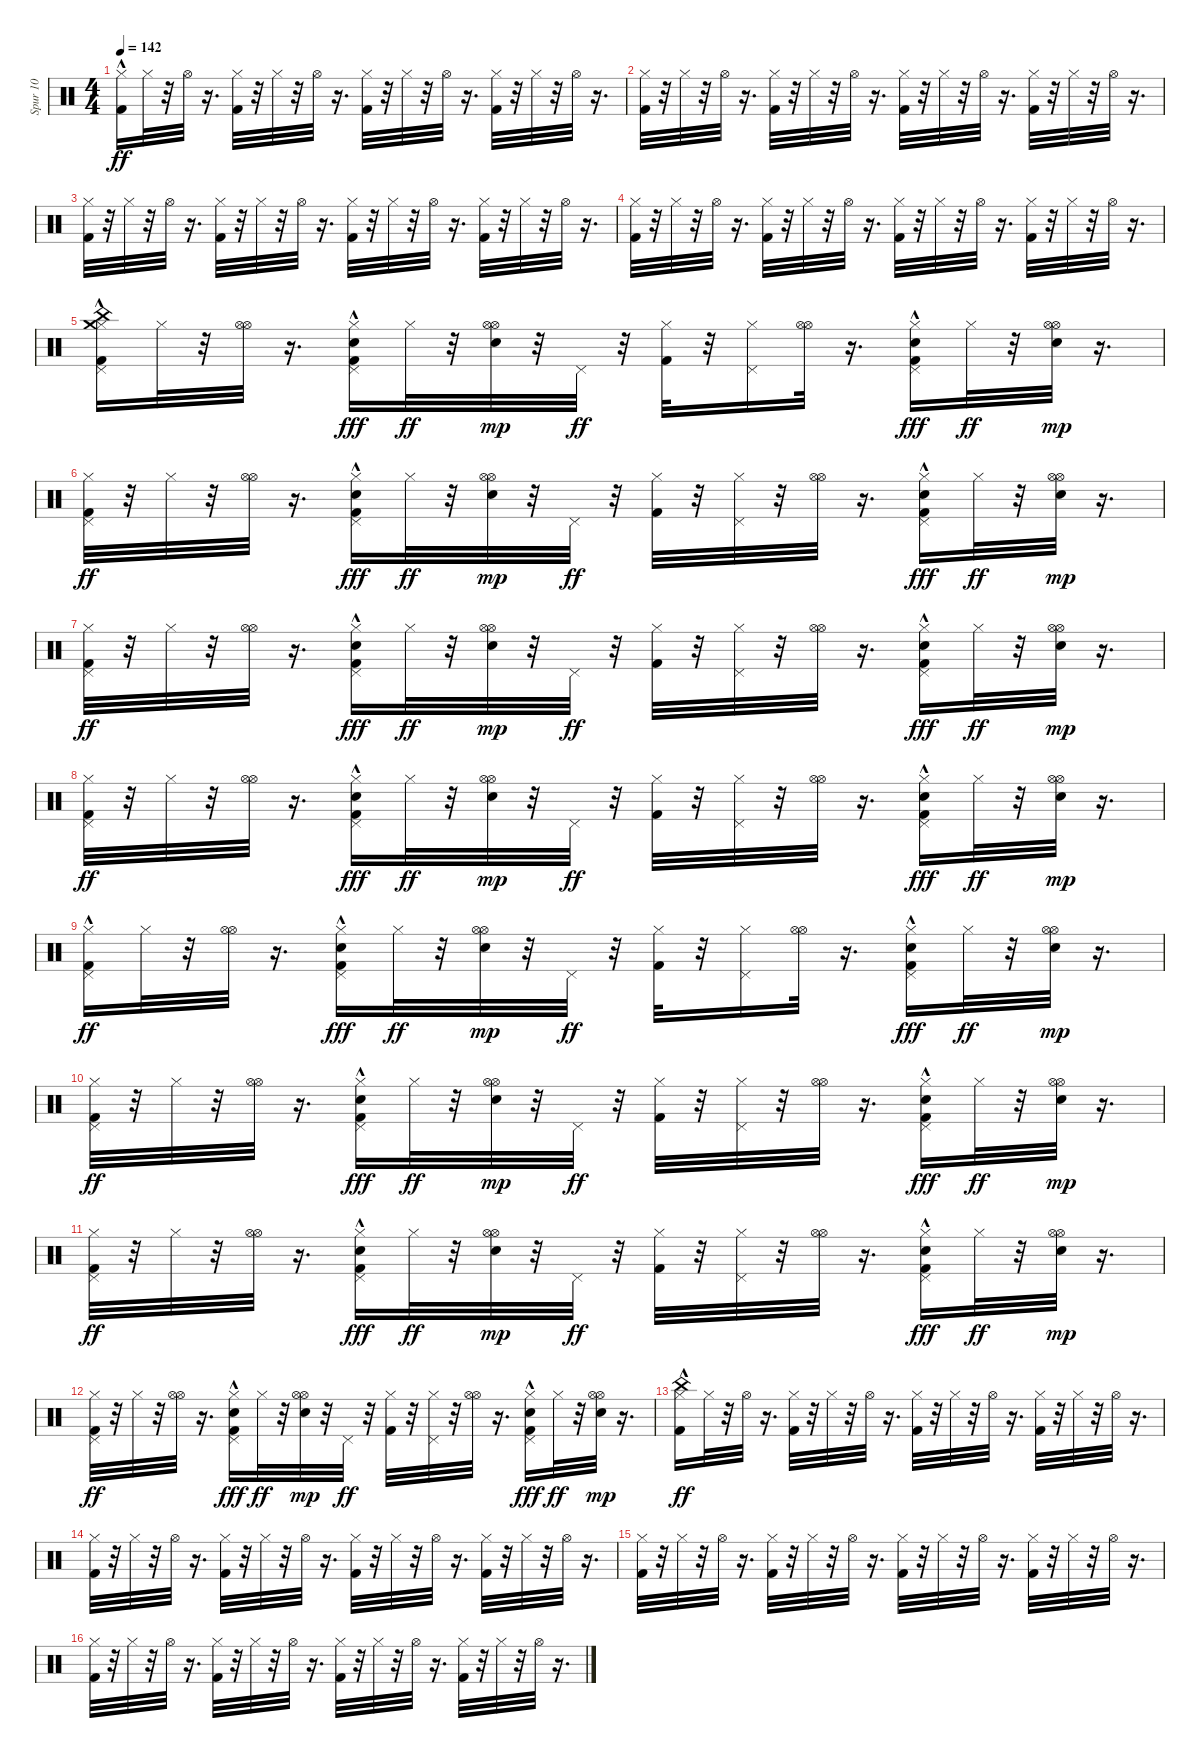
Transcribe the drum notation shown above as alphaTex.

\track ("Spur 10" "Spur 10") {instrument percussion}
\staff {score}
\articulation defaults
\ts (4 4)
\tempo 142
\clef neutral
\ks c
("Kick (hit) 2"{hac} "Hi-Hat (closed)").16{dy ff} "Hi-Hat (closed)".32 r.32 "Hi-Hat (open)".32 r.16{d} ("Kick (hit) 2" "Hi-Hat (closed)").32 r.32 "Hi-Hat (closed)".32 r.32 "Hi-Hat (open)".32 r.16{d} ("Kick (hit) 2" "Hi-Hat (closed)").32 r.32 "Hi-Hat (closed)".32 r.32 "Hi-Hat (open)".32 r.16{d} ("Kick (hit) 2" "Hi-Hat (closed)").32 r.32 "Hi-Hat (closed)".32 r.32 "Hi-Hat (open)".32 r.16{d} |
("Kick (hit) 2" "Hi-Hat (closed)").32 r.32 "Hi-Hat (closed)".32 r.32 "Hi-Hat (open)".32 r.16{d} ("Kick (hit) 2" "Hi-Hat (closed)").32 r.32 "Hi-Hat (closed)".32 r.32 "Hi-Hat (open)".32 r.16{d} ("Kick (hit) 2" "Hi-Hat (closed)").32 r.32 "Hi-Hat (closed)".32 r.32 "Hi-Hat (open)".32 r.16{d} ("Kick (hit) 2" "Hi-Hat (closed)").32 r.32 "Hi-Hat (closed)".32 r.32 "Hi-Hat (open)".32 r.16{d} |
("Kick (hit) 2" "Hi-Hat (closed)").32 r.32 "Hi-Hat (closed)".32 r.32 "Hi-Hat (open)".32 r.16{d} ("Kick (hit) 2" "Hi-Hat (closed)").32 r.32 "Hi-Hat (closed)".32 r.32 "Hi-Hat (open)".32 r.16{d} ("Kick (hit) 2" "Hi-Hat (closed)").32 r.32 "Hi-Hat (closed)".32 r.32 "Hi-Hat (open)".32 r.16{d} ("Kick (hit) 2" "Hi-Hat (closed)").32 r.32 "Hi-Hat (closed)".32 r.32 "Hi-Hat (open)".32 r.16{d} |
("Kick (hit) 2" "Hi-Hat (closed)").32 r.32 "Hi-Hat (closed)".32 r.32 "Hi-Hat (open)".32 r.16{d} ("Kick (hit) 2" "Hi-Hat (closed)").32 r.32 "Hi-Hat (closed)".32 r.32 "Hi-Hat (open)".32 r.16{d} ("Kick (hit) 2" "Hi-Hat (closed)").32 r.32 "Hi-Hat (closed)".32 r.32 "Hi-Hat (open)".32 r.16{d} ("Kick (hit) 2" "Hi-Hat (closed)").32 r.32 "Hi-Hat (closed)".32 r.32 "Hi-Hat (open)".32 r.16{d} |
("Kick (hit) 2"{hac} "Hi-Hat (closed)" "Pedal Hi-Hat (hit)" "Crash medium (hit)" "China (hit)").16 "Hi-Hat (closed)".32 r.32 ("Hi-Hat (open)" "Hi-Hat (open)").32 r.16{d} ("Kick (hit) 2" "Hi-Hat (closed)" "Pedal Hi-Hat (hit)" "Hand Clap (hit)"{hac}).16{dy fff balance 16} "Hi-Hat (closed)".32{dy ff} r.32 ("Hi-Hat (open)" "Hi-Hat (open)" "Hand Clap (hit)").32{dy mp balance 0} r.32 "Pedal Hi-Hat (hit)".32{dy ff} r.32 ("Kick (hit) 2" "Hi-Hat (closed)").32 r.32 ("Hi-Hat (closed)" "Pedal Hi-Hat (hit)").16 ("Hi-Hat (open)" "Hi-Hat (open)").32 r.16{d} ("Kick (hit) 2" "Hi-Hat (closed)" "Pedal Hi-Hat (hit)" "Hand Clap (hit)"{hac}).16{dy fff balance 16} "Hi-Hat (closed)".32{dy ff} r.32 ("Hi-Hat (open)" "Hi-Hat (open)" "Hand Clap (hit)").32{dy mp balance 0} r.16{d} |
("Kick (hit) 2" "Hi-Hat (closed)" "Pedal Hi-Hat (hit)").32{dy ff} r.32 "Hi-Hat (closed)".32 r.32 ("Hi-Hat (open)" "Hi-Hat (open)").32 r.16{d} ("Kick (hit) 2" "Hi-Hat (closed)" "Pedal Hi-Hat (hit)" "Hand Clap (hit)"{hac}).16{dy fff balance 16} "Hi-Hat (closed)".32{dy ff} r.32 ("Hi-Hat (open)" "Hi-Hat (open)" "Hand Clap (hit)").32{dy mp balance 0} r.32 "Pedal Hi-Hat (hit)".32{dy ff} r.32 ("Kick (hit) 2" "Hi-Hat (closed)").32 r.32 ("Hi-Hat (closed)" "Pedal Hi-Hat (hit)").32 r.32 ("Hi-Hat (open)" "Hi-Hat (open)").32 r.16{d} ("Kick (hit) 2" "Hi-Hat (closed)" "Pedal Hi-Hat (hit)" "Hand Clap (hit)"{hac}).16{dy fff balance 16} "Hi-Hat (closed)".32{dy ff} r.32 ("Hi-Hat (open)" "Hi-Hat (open)" "Hand Clap (hit)").32{dy mp balance 0} r.16{d} |
("Kick (hit) 2" "Hi-Hat (closed)" "Pedal Hi-Hat (hit)").32{dy ff} r.32 "Hi-Hat (closed)".32 r.32 ("Hi-Hat (open)" "Hi-Hat (open)").32 r.16{d} ("Kick (hit) 2" "Hi-Hat (closed)" "Pedal Hi-Hat (hit)" "Hand Clap (hit)"{hac}).16{dy fff balance 16} "Hi-Hat (closed)".32{dy ff} r.32 ("Hi-Hat (open)" "Hi-Hat (open)" "Hand Clap (hit)").32{dy mp balance 0} r.32 "Pedal Hi-Hat (hit)".32{dy ff} r.32 ("Kick (hit) 2" "Hi-Hat (closed)").32 r.32 ("Hi-Hat (closed)" "Pedal Hi-Hat (hit)").32 r.32 ("Hi-Hat (open)" "Hi-Hat (open)").32 r.16{d} ("Kick (hit) 2" "Hi-Hat (closed)" "Pedal Hi-Hat (hit)" "Hand Clap (hit)"{hac}).16{dy fff balance 16} "Hi-Hat (closed)".32{dy ff} r.32 ("Hi-Hat (open)" "Hi-Hat (open)" "Hand Clap (hit)").32{dy mp balance 0} r.16{d} |
("Kick (hit) 2" "Hi-Hat (closed)" "Pedal Hi-Hat (hit)").32{dy ff} r.32 "Hi-Hat (closed)".32 r.32 ("Hi-Hat (open)" "Hi-Hat (open)").32 r.16{d} ("Kick (hit) 2" "Hi-Hat (closed)" "Pedal Hi-Hat (hit)" "Hand Clap (hit)"{hac}).16{dy fff balance 16} "Hi-Hat (closed)".32{dy ff} r.32 ("Hi-Hat (open)" "Hi-Hat (open)" "Hand Clap (hit)").32{dy mp balance 0} r.32 "Pedal Hi-Hat (hit)".32{dy ff} r.32 ("Kick (hit) 2" "Hi-Hat (closed)").32 r.32 ("Hi-Hat (closed)" "Pedal Hi-Hat (hit)").32 r.32 ("Hi-Hat (open)" "Hi-Hat (open)").32 r.16{d} ("Kick (hit) 2" "Hi-Hat (closed)" "Pedal Hi-Hat (hit)" "Hand Clap (hit)"{hac}).16{dy fff balance 16} "Hi-Hat (closed)".32{dy ff} r.32 ("Hi-Hat (open)" "Hi-Hat (open)" "Hand Clap (hit)").32{dy mp balance 0} r.16{d} |
("Kick (hit) 2"{hac} "Hi-Hat (closed)" "Pedal Hi-Hat (hit)").16{dy ff} "Hi-Hat (closed)".32 r.32 ("Hi-Hat (open)" "Hi-Hat (open)").32 r.16{d} ("Kick (hit) 2" "Hi-Hat (closed)" "Pedal Hi-Hat (hit)" "Hand Clap (hit)"{hac}).16{dy fff balance 16} "Hi-Hat (closed)".32{dy ff} r.32 ("Hi-Hat (open)" "Hi-Hat (open)" "Hand Clap (hit)").32{dy mp balance 0} r.32 "Pedal Hi-Hat (hit)".32{dy ff} r.32 ("Kick (hit) 2" "Hi-Hat (closed)").32 r.32 ("Hi-Hat (closed)" "Pedal Hi-Hat (hit)").16 ("Hi-Hat (open)" "Hi-Hat (open)").32 r.16{d} ("Kick (hit) 2" "Hi-Hat (closed)" "Pedal Hi-Hat (hit)" "Hand Clap (hit)"{hac}).16{dy fff balance 16} "Hi-Hat (closed)".32{dy ff} r.32 ("Hi-Hat (open)" "Hi-Hat (open)" "Hand Clap (hit)").32{dy mp balance 0} r.16{d} |
("Kick (hit) 2" "Hi-Hat (closed)" "Pedal Hi-Hat (hit)").32{dy ff} r.32 "Hi-Hat (closed)".32 r.32 ("Hi-Hat (open)" "Hi-Hat (open)").32 r.16{d} ("Kick (hit) 2" "Hi-Hat (closed)" "Pedal Hi-Hat (hit)" "Hand Clap (hit)"{hac}).16{dy fff balance 16} "Hi-Hat (closed)".32{dy ff} r.32 ("Hi-Hat (open)" "Hi-Hat (open)" "Hand Clap (hit)").32{dy mp balance 0} r.32 "Pedal Hi-Hat (hit)".32{dy ff} r.32 ("Kick (hit) 2" "Hi-Hat (closed)").32 r.32 ("Hi-Hat (closed)" "Pedal Hi-Hat (hit)").32 r.32 ("Hi-Hat (open)" "Hi-Hat (open)").32 r.16{d} ("Kick (hit) 2" "Hi-Hat (closed)" "Pedal Hi-Hat (hit)" "Hand Clap (hit)"{hac}).16{dy fff balance 16} "Hi-Hat (closed)".32{dy ff} r.32 ("Hi-Hat (open)" "Hi-Hat (open)" "Hand Clap (hit)").32{dy mp balance 0} r.16{d} |
("Kick (hit) 2" "Hi-Hat (closed)" "Pedal Hi-Hat (hit)").32{dy ff} r.32 "Hi-Hat (closed)".32 r.32 ("Hi-Hat (open)" "Hi-Hat (open)").32 r.16{d} ("Kick (hit) 2" "Hi-Hat (closed)" "Pedal Hi-Hat (hit)" "Hand Clap (hit)"{hac}).16{dy fff balance 16} "Hi-Hat (closed)".32{dy ff} r.32 ("Hi-Hat (open)" "Hi-Hat (open)" "Hand Clap (hit)").32{dy mp balance 0} r.32 "Pedal Hi-Hat (hit)".32{dy ff} r.32 ("Kick (hit) 2" "Hi-Hat (closed)").32 r.32 ("Hi-Hat (closed)" "Pedal Hi-Hat (hit)").32 r.32 ("Hi-Hat (open)" "Hi-Hat (open)").32 r.16{d} ("Kick (hit) 2" "Hi-Hat (closed)" "Pedal Hi-Hat (hit)" "Hand Clap (hit)"{hac}).16{dy fff balance 16} "Hi-Hat (closed)".32{dy ff} r.32 ("Hi-Hat (open)" "Hi-Hat (open)" "Hand Clap (hit)").32{dy mp balance 0} r.16{d} |
("Kick (hit) 2" "Hi-Hat (closed)" "Pedal Hi-Hat (hit)").32{dy ff} r.32 "Hi-Hat (closed)".32 r.32 ("Hi-Hat (open)" "Hi-Hat (open)").32 r.16{d} ("Kick (hit) 2" "Hi-Hat (closed)" "Pedal Hi-Hat (hit)" "Hand Clap (hit)"{hac}).16{dy fff balance 16} "Hi-Hat (closed)".32{dy ff} r.32 ("Hi-Hat (open)" "Hi-Hat (open)" "Hand Clap (hit)").32{dy mp balance 0} r.32 "Pedal Hi-Hat (hit)".32{dy ff} r.32 ("Kick (hit) 2" "Hi-Hat (closed)").32 r.32 ("Hi-Hat (closed)" "Pedal Hi-Hat (hit)").32 r.32 ("Hi-Hat (open)" "Hi-Hat (open)").32 r.16{d} ("Kick (hit) 2" "Hi-Hat (closed)" "Pedal Hi-Hat (hit)" "Hand Clap (hit)"{hac}).16{dy fff balance 16} "Hi-Hat (closed)".32{dy ff} r.32 ("Hi-Hat (open)" "Hi-Hat (open)" "Hand Clap (hit)").32{dy mp balance 0} r.16{d} |
("Kick (hit) 2"{hac} "Hi-Hat (closed)" "China (hit)").16{dy ff} "Hi-Hat (closed)".32 r.32 "Hi-Hat (open)".32 r.16{d} ("Kick (hit) 2" "Hi-Hat (closed)").32 r.32 "Hi-Hat (closed)".32 r.32 "Hi-Hat (open)".32 r.16{d} ("Kick (hit) 2" "Hi-Hat (closed)").32 r.32 "Hi-Hat (closed)".32 r.32 "Hi-Hat (open)".32 r.16{d} ("Kick (hit) 2" "Hi-Hat (closed)").32 r.32 "Hi-Hat (closed)".32 r.32 "Hi-Hat (open)".32 r.16{d} |
("Kick (hit) 2" "Hi-Hat (closed)").32 r.32 "Hi-Hat (closed)".32 r.32 "Hi-Hat (open)".32 r.16{d} ("Kick (hit) 2" "Hi-Hat (closed)").32 r.32 "Hi-Hat (closed)".32 r.32 "Hi-Hat (open)".32 r.16{d} ("Kick (hit) 2" "Hi-Hat (closed)").32 r.32 "Hi-Hat (closed)".32 r.32 "Hi-Hat (open)".32 r.16{d} ("Kick (hit) 2" "Hi-Hat (closed)").32 r.32 "Hi-Hat (closed)".32 r.32 "Hi-Hat (open)".32 r.16{d} |
("Kick (hit) 2" "Hi-Hat (closed)").32 r.32 "Hi-Hat (closed)".32 r.32 "Hi-Hat (open)".32 r.16{d} ("Kick (hit) 2" "Hi-Hat (closed)").32 r.32 "Hi-Hat (closed)".32 r.32 "Hi-Hat (open)".32 r.16{d} ("Kick (hit) 2" "Hi-Hat (closed)").32 r.32 "Hi-Hat (closed)".32 r.32 "Hi-Hat (open)".32 r.16{d} ("Kick (hit) 2" "Hi-Hat (closed)").32 r.32 "Hi-Hat (closed)".32 r.32 "Hi-Hat (open)".32 r.16{d} |
("Kick (hit) 2" "Hi-Hat (closed)").32 r.32 "Hi-Hat (closed)".32 r.32 "Hi-Hat (open)".32 r.16{d} ("Kick (hit) 2" "Hi-Hat (closed)").32 r.32 "Hi-Hat (closed)".32 r.32 "Hi-Hat (open)".32 r.16{d} ("Kick (hit) 2" "Hi-Hat (closed)").32 r.32 "Hi-Hat (closed)".32 r.32 "Hi-Hat (open)".32 r.16{d} ("Kick (hit) 2" "Hi-Hat (closed)").32 r.32 "Hi-Hat (closed)".32 r.32 "Hi-Hat (open)".32 r.16{d}
